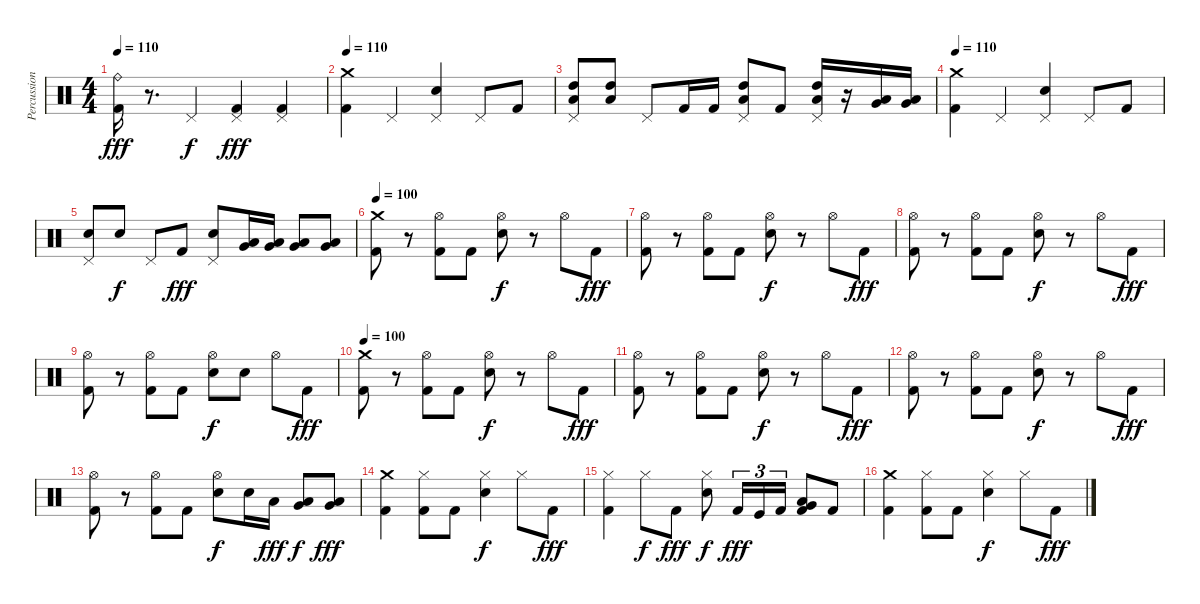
\track ("Percussion" "Percussion") {instrument percussion}
\staff {score}
\articulation defaults
\ts (4 4)
\tempo 110
\clef neutral
\ks c
("Ride (bell)" "Kick (hit) 2").16{dy fff} r.8{d} "Pedal Hi-Hat (hit)".4{dy f} ("Pedal Hi-Hat (hit)" "Kick (hit) 2").4{dy fff} ("Pedal Hi-Hat (hit)" "Kick (hit) 2").4 |
\tempo 110
("Crash medium (hit)" "Kick (hit) 2").4 "Pedal Hi-Hat (hit)".4 ("Pedal Hi-Hat (hit)" "Snare (hit) 2").4 "Pedal Hi-Hat (hit)".8 "Kick (hit) 2".8 |
("Pedal Hi-Hat (hit)" "High Tom (hit)" "Low Floor Tom (hit)").8 ("High Tom (hit)" "Low Floor Tom (hit)").8 "Pedal Hi-Hat (hit)".8 "Kick (hit) 2".16 "Kick (hit) 2".16 ("Pedal Hi-Hat (hit)" "High Tom (hit)" "Low Floor Tom (hit)").8 "Kick (hit) 2".8 ("Pedal Hi-Hat (hit)" "High Tom (hit)" "Low Floor Tom (hit)").16 r.16 ("Low Tom (hit)" "Very Low Tom (hit)").16 ("Low Tom (hit)" "Very Low Tom (hit)").16 |
\tempo 110
("Crash medium (hit)" "Kick (hit) 2").4 "Pedal Hi-Hat (hit)".4 ("Pedal Hi-Hat (hit)" "Snare (hit) 2").4 "Pedal Hi-Hat (hit)".8 "Kick (hit) 2".8 |
("Pedal Hi-Hat (hit)" "Snare (hit) 2").8 "Snare (hit) 2".8{dy f} "Pedal Hi-Hat (hit)".8 "Kick (hit) 2".8{dy fff} ("Pedal Hi-Hat (hit)" "Snare (hit) 2").8 ("Very Low Tom (hit)" "Low Tom (hit)").16 ("Very Low Tom (hit)" "Low Tom (hit)").16 ("Low Floor Tom (hit)" "Very Low Tom (hit)").8 ("Low Floor Tom (hit)" "Very Low Tom (hit)").8 |
\tempo 100
("Crash medium (hit)" "Kick (hit) 2").8 r.8 ("Hi-Hat (open)" "Kick (hit) 2").8 "Kick (hit) 2".8 ("Hi-Hat (open)" "Snare (hit) 2").8{dy f} r.8 "Hi-Hat (open)".8 "Kick (hit) 2".8{dy fff} |
("Hi-Hat (open)" "Kick (hit) 2").8 r.8 ("Hi-Hat (open)" "Kick (hit) 2").8 "Kick (hit) 2".8 ("Hi-Hat (open)" "Snare (hit) 2").8{dy f} r.8 "Hi-Hat (open)".8 "Kick (hit) 2".8{dy fff} |
("Hi-Hat (open)" "Kick (hit) 2").8 r.8 ("Hi-Hat (open)" "Kick (hit) 2").8 "Kick (hit) 2".8 ("Hi-Hat (open)" "Snare (hit) 2").8{dy f} r.8 "Hi-Hat (open)".8 "Kick (hit) 2".8{dy fff} |
("Hi-Hat (open)" "Kick (hit) 2").8 r.8 ("Hi-Hat (open)" "Kick (hit) 2").8 "Kick (hit) 2".8 ("Hi-Hat (open)" "Snare (hit) 2").8{dy f} "Snare (hit) 2".8 "Hi-Hat (open)".8 "Kick (hit) 2".8{dy fff} |
\tempo 100
("Crash medium (hit)" "Kick (hit) 2").8 r.8 ("Hi-Hat (open)" "Kick (hit) 2").8 "Kick (hit) 2".8 ("Hi-Hat (open)" "Snare (hit) 2").8{dy f} r.8 "Hi-Hat (open)".8 "Kick (hit) 2".8{dy fff} |
("Hi-Hat (open)" "Kick (hit) 2").8 r.8 ("Hi-Hat (open)" "Kick (hit) 2").8 "Kick (hit) 2".8 ("Hi-Hat (open)" "Snare (hit) 2").8{dy f} r.8 "Hi-Hat (open)".8 "Kick (hit) 2".8{dy fff} |
("Hi-Hat (open)" "Kick (hit) 2").8 r.8 ("Hi-Hat (open)" "Kick (hit) 2").8 "Kick (hit) 2".8 ("Hi-Hat (open)" "Snare (hit) 2").8{dy f} r.8 "Hi-Hat (open)".8 "Kick (hit) 2".8{dy fff} |
("Hi-Hat (open)" "Kick (hit) 2").8 r.8 ("Hi-Hat (open)" "Kick (hit) 2").8 "Kick (hit) 2".8 ("Hi-Hat (open)" "Snare (hit) 2").8{dy f} "Snare (hit) 2".16 "Low Tom (hit)".16{dy fff} ("Very Low Tom (hit)" "Low Floor Tom (hit)").8{dy f} ("Low Floor Tom (hit)" "Very Low Tom (hit)").8{dy fff} |
("Crash medium (hit)" "Kick (hit) 2").4 ("Hi-Hat (closed)" "Kick (hit) 2").8 "Kick (hit) 2".8 ("Hi-Hat (closed)" "Snare (hit) 2").4{dy f} "Hi-Hat (closed)".8 "Kick (hit) 2".8{dy fff} |
("Hi-Hat (closed)" "Kick (hit) 2").4 "Hi-Hat (closed)".8{dy f} "Kick (hit) 2".8{dy fff} ("Hi-Hat (closed)" "Snare (hit) 2").8{dy f} "Kick (hit) 2".16{tu (3 2) dy fff} "Kick (hit)".16{tu (3 2)} "Kick (hit) 2".16{tu (3 2)} ("Very Low Tom (hit)" "Low Tom (hit)" "Kick (hit) 2").8 "Kick (hit) 2".8 |
("Crash medium (hit)" "Kick (hit) 2").4 ("Hi-Hat (closed)" "Kick (hit) 2").8 "Kick (hit) 2".8 ("Hi-Hat (closed)" "Snare (hit) 2").4{dy f} "Hi-Hat (closed)".8 "Kick (hit) 2".8{dy fff}
